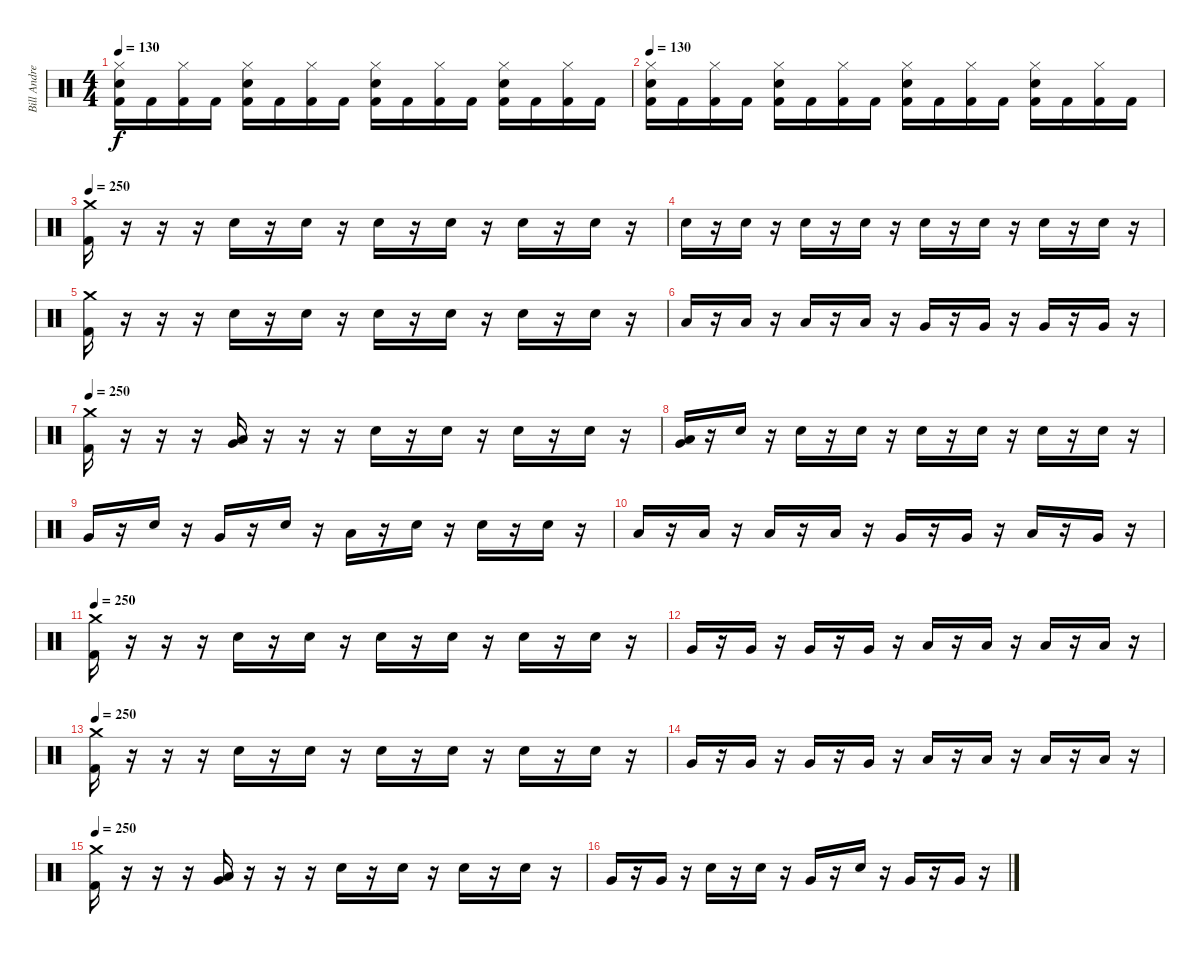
\track ("Bill Andrews" "Bill Andre") {instrument percussion}
\staff {score}
\articulation defaults
\ts (4 4)
\tempo 130
\clef neutral
\ks c
("Hi-Hat (closed)" "Snare (hit) 2" "Kick (hit) 2").16{dy f} "Kick (hit) 2".16 ("Hi-Hat (closed)" "Kick (hit) 2").16 "Kick (hit) 2".16 ("Hi-Hat (closed)" "Snare (hit) 2" "Kick (hit) 2").16 "Kick (hit) 2".16 ("Hi-Hat (closed)" "Kick (hit) 2").16 "Kick (hit) 2".16 ("Hi-Hat (closed)" "Snare (hit) 2" "Kick (hit) 2").16 "Kick (hit) 2".16 ("Hi-Hat (closed)" "Kick (hit) 2").16 "Kick (hit) 2".16 ("Hi-Hat (closed)" "Snare (hit) 2" "Kick (hit) 2").16 "Kick (hit) 2".16 ("Hi-Hat (closed)" "Kick (hit) 2").16 "Kick (hit) 2".16 |
\tempo 130
("Hi-Hat (closed)" "Snare (hit) 2" "Kick (hit) 2").16 "Kick (hit) 2".16 ("Hi-Hat (closed)" "Kick (hit) 2").16 "Kick (hit) 2".16 ("Hi-Hat (closed)" "Snare (hit) 2" "Kick (hit) 2").16 "Kick (hit) 2".16 ("Hi-Hat (closed)" "Kick (hit) 2").16 "Kick (hit) 2".16 ("Hi-Hat (closed)" "Snare (hit) 2" "Kick (hit) 2").16 "Kick (hit) 2".16 ("Hi-Hat (closed)" "Kick (hit) 2").16 "Kick (hit) 2".16 ("Hi-Hat (closed)" "Snare (hit) 2" "Kick (hit) 2").16 "Kick (hit) 2".16 ("Hi-Hat (closed)" "Kick (hit) 2").16 "Kick (hit) 2".16 |
\tempo 250
("Crash medium (hit)" "Kick (hit) 2").16 r.16 r.16 r.16 "Snare (hit) 2".16 r.16 "Snare (hit) 2".16 r.16 "Snare (hit) 2".16 r.16 "Snare (hit) 2".16 r.16 "Snare (hit) 2".16 r.16 "Snare (hit) 2".16 r.16 |
"Snare (hit) 2".16 r.16 "Snare (hit) 2".16 r.16 "Snare (hit) 2".16 r.16 "Snare (hit) 2".16 r.16 "Snare (hit) 2".16 r.16 "Snare (hit) 2".16 r.16 "Snare (hit) 2".16 r.16 "Snare (hit) 2".16 r.16 |
("Crash medium (hit)" "Kick (hit) 2").16 r.16 r.16 r.16 "Snare (hit) 2".16 r.16 "Snare (hit) 2".16 r.16 "Snare (hit) 2".16 r.16 "Snare (hit) 2".16 r.16 "Snare (hit) 2".16 r.16 "Snare (hit) 2".16 r.16 |
"Low Tom (hit)".16 r.16 "Low Tom (hit)".16 r.16 "Low Tom (hit)".16 r.16 "Low Tom (hit)".16 r.16 "Very Low Tom (hit)".16 r.16 "Very Low Tom (hit)".16 r.16 "Very Low Tom (hit)".16 r.16 "Very Low Tom (hit)".16 r.16 |
\tempo 250
("Crash medium (hit)" "Kick (hit) 2").16 r.16 r.16 r.16 ("Low Tom (hit)" "Very Low Tom (hit)").16 r.16 r.16 r.16 "Snare (hit) 2".16 r.16 "Snare (hit) 2".16 r.16 "Snare (hit) 2".16 r.16 "Snare (hit) 2".16 r.16 |
("Low Tom (hit)" "Very Low Tom (hit)").16 r.16 "Snare (hit) 2".16 r.16 "Snare (hit) 2".16 r.16 "Snare (hit) 2".16 r.16 "Snare (hit) 2".16 r.16 "Snare (hit) 2".16 r.16 "Snare (hit) 2".16 r.16 "Snare (hit) 2".16 r.16 |
"Very Low Tom (hit)".16 r.16 "Snare (hit) 2".16 r.16 "Very Low Tom (hit)".16 r.16 "Snare (hit) 2".16 r.16 "Low Tom (hit)".16 r.16 "Snare (hit) 2".16 r.16 "Snare (hit) 2".16 r.16 "Snare (hit) 2".16 r.16 |
"Low Tom (hit)".16 r.16 "Low Tom (hit)".16 r.16 "Low Tom (hit)".16 r.16 "Low Tom (hit)".16 r.16 "Very Low Tom (hit)".16 r.16 "Very Low Tom (hit)".16 r.16 "Low Tom (hit)".16 r.16 "Very Low Tom (hit)".16 r.16 |
\tempo 250
("Crash medium (hit)" "Kick (hit) 2").16 r.16 r.16 r.16 "Snare (hit) 2".16 r.16 "Snare (hit) 2".16 r.16 "Snare (hit) 2".16 r.16 "Snare (hit) 2".16 r.16 "Snare (hit) 2".16 r.16 "Snare (hit) 2".16 r.16 |
"Very Low Tom (hit)".16 r.16 "Very Low Tom (hit)".16 r.16 "Very Low Tom (hit)".16 r.16 "Very Low Tom (hit)".16 r.16 "Low Floor Tom (hit)".16 r.16 "Low Floor Tom (hit)".16 r.16 "Low Floor Tom (hit)".16 r.16 "Low Floor Tom (hit)".16 r.16 |
\tempo 250
("Crash medium (hit)" "Kick (hit) 2").16 r.16 r.16 r.16 "Snare (hit) 2".16 r.16 "Snare (hit) 2".16 r.16 "Snare (hit) 2".16 r.16 "Snare (hit) 2".16 r.16 "Snare (hit) 2".16 r.16 "Snare (hit) 2".16 r.16 |
"Very Low Tom (hit)".16 r.16 "Very Low Tom (hit)".16 r.16 "Very Low Tom (hit)".16 r.16 "Very Low Tom (hit)".16 r.16 "Low Floor Tom (hit)".16 r.16 "Low Floor Tom (hit)".16 r.16 "Low Floor Tom (hit)".16 r.16 "Low Floor Tom (hit)".16 r.16 |
\tempo 250
("Crash medium (hit)" "Kick (hit) 2").16 r.16 r.16 r.16 ("Low Tom (hit)" "Very Low Tom (hit)").16 r.16 r.16 r.16 "Snare (hit) 2".16 r.16 "Snare (hit) 2".16 r.16 "Snare (hit) 2".16 r.16 "Snare (hit) 2".16 r.16 |
"Very Low Tom (hit)".16 r.16 "Very Low Tom (hit)".16 r.16 "Snare (hit) 2".16 r.16 "Snare (hit) 2".16 r.16 "Very Low Tom (hit)".16 r.16 "Snare (hit) 2".16 r.16 "Very Low Tom (hit)".16 r.16 "Very Low Tom (hit)".16 r.16
